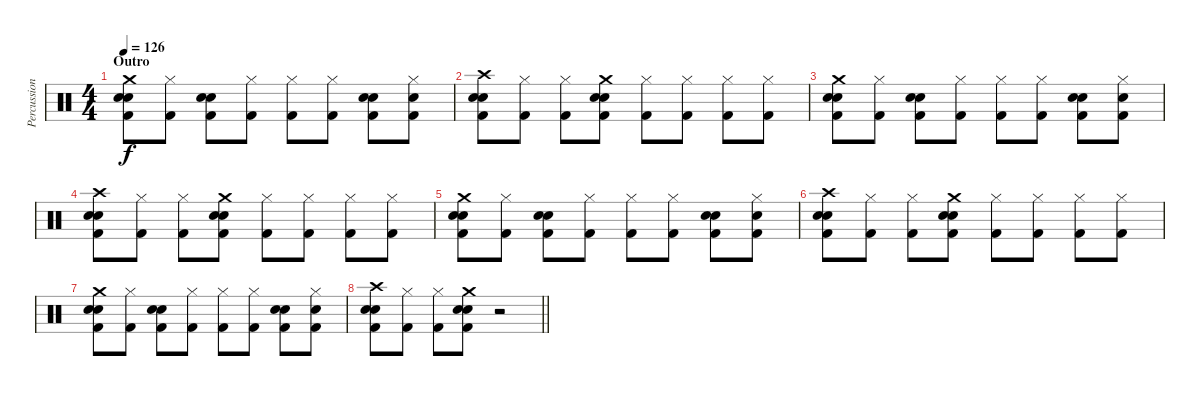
\track ("Percussion" "Percussion") {instrument percussion}
\staff {score}
\articulation defaults
\ts (4 4)
\section ("" "Outro")
\tempo 126
\clef neutral
\ks c
("Kick (hit) 2" "Crash medium (hit)" "Snare (hit) 2" "Electric Snare (hit)").8{dy f} ("Hi-Hat (closed)" "Kick (hit) 2").8 ("Kick (hit) 2" "Snare (hit) 2" "Electric Snare (hit)").8 ("Hi-Hat (closed)" "Kick (hit) 2").8 ("Hi-Hat (closed)" "Kick (hit) 2").8 ("Hi-Hat (closed)" "Kick (hit) 2").8 ("Kick (hit) 2" "Snare (hit) 2" "Electric Snare (hit)").8 ("Snare (hit) 2" "Hi-Hat (closed)" "Kick (hit) 2").8 |
("Kick (hit) 2" "Crash high (hit)" "Snare (hit) 2" "Electric Snare (hit)").8 ("Hi-Hat (closed)" "Kick (hit) 2").8 ("Hi-Hat (closed)" "Kick (hit) 2").8 ("Kick (hit) 2" "Crash medium (hit)" "Snare (hit) 2" "Electric Snare (hit)").8 ("Hi-Hat (closed)" "Kick (hit) 2").8 ("Hi-Hat (closed)" "Kick (hit) 2").8 ("Hi-Hat (closed)" "Kick (hit) 2").8 ("Hi-Hat (closed)" "Kick (hit) 2").8 |
("Kick (hit) 2" "Crash medium (hit)" "Snare (hit) 2" "Electric Snare (hit)").8 ("Hi-Hat (closed)" "Kick (hit) 2").8 ("Kick (hit) 2" "Snare (hit) 2" "Electric Snare (hit)").8 ("Hi-Hat (closed)" "Kick (hit) 2").8 ("Hi-Hat (closed)" "Kick (hit) 2").8 ("Hi-Hat (closed)" "Kick (hit) 2").8 ("Kick (hit) 2" "Snare (hit) 2" "Electric Snare (hit)").8 ("Snare (hit) 2" "Hi-Hat (closed)" "Kick (hit) 2").8 |
("Kick (hit) 2" "Crash high (hit)" "Snare (hit) 2" "Electric Snare (hit)").8 ("Hi-Hat (closed)" "Kick (hit) 2").8 ("Hi-Hat (closed)" "Kick (hit) 2").8 ("Kick (hit) 2" "Crash medium (hit)" "Snare (hit) 2" "Electric Snare (hit)").8 ("Hi-Hat (closed)" "Kick (hit) 2").8 ("Hi-Hat (closed)" "Kick (hit) 2").8 ("Hi-Hat (closed)" "Kick (hit) 2").8 ("Hi-Hat (closed)" "Kick (hit) 2").8 |
("Kick (hit) 2" "Crash medium (hit)" "Snare (hit) 2" "Electric Snare (hit)").8 ("Hi-Hat (closed)" "Kick (hit) 2").8 ("Kick (hit) 2" "Snare (hit) 2" "Electric Snare (hit)").8 ("Hi-Hat (closed)" "Kick (hit) 2").8 ("Hi-Hat (closed)" "Kick (hit) 2").8 ("Hi-Hat (closed)" "Kick (hit) 2").8 ("Kick (hit) 2" "Snare (hit) 2" "Electric Snare (hit)").8 ("Snare (hit) 2" "Hi-Hat (closed)" "Kick (hit) 2").8 |
("Kick (hit) 2" "Crash high (hit)" "Snare (hit) 2" "Electric Snare (hit)").8 ("Hi-Hat (closed)" "Kick (hit) 2").8 ("Hi-Hat (closed)" "Kick (hit) 2").8 ("Kick (hit) 2" "Crash medium (hit)" "Snare (hit) 2" "Electric Snare (hit)").8 ("Hi-Hat (closed)" "Kick (hit) 2").8 ("Hi-Hat (closed)" "Kick (hit) 2").8 ("Hi-Hat (closed)" "Kick (hit) 2").8 ("Hi-Hat (closed)" "Kick (hit) 2").8 |
("Kick (hit) 2" "Crash medium (hit)" "Snare (hit) 2" "Electric Snare (hit)").8 ("Hi-Hat (closed)" "Kick (hit) 2").8 ("Kick (hit) 2" "Snare (hit) 2" "Electric Snare (hit)").8 ("Hi-Hat (closed)" "Kick (hit) 2").8 ("Hi-Hat (closed)" "Kick (hit) 2").8 ("Hi-Hat (closed)" "Kick (hit) 2").8 ("Kick (hit) 2" "Snare (hit) 2" "Electric Snare (hit)").8 ("Snare (hit) 2" "Hi-Hat (closed)" "Kick (hit) 2").8 |
\barLineRight lightlight
("Kick (hit) 2" "Crash high (hit)" "Snare (hit) 2" "Electric Snare (hit)").8 ("Hi-Hat (closed)" "Kick (hit) 2").8 ("Hi-Hat (closed)" "Kick (hit) 2").8 ("Kick (hit) 2" "Crash medium (hit)" "Snare (hit) 2" "Electric Snare (hit)").8 r.2
